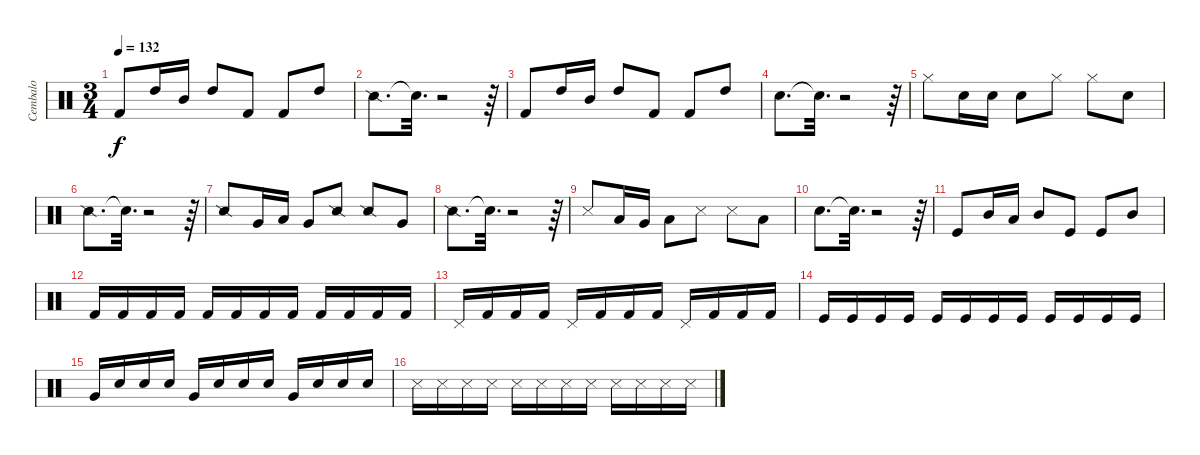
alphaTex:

\track ("Cembalo" "Cembalo") {instrument percussion}
\staff {score}
\articulation defaults
\ts (3 4)
\tempo 132
\clef neutral
\ks c "Kick (hit) 2".8{dy f} "High Tom (hit)".16 "Mid Tom (hit)".16 "High Tom (hit)".8 "Kick (hit) 2".8 "Kick (hit) 2".8 "High Tom (hit)".8
|
"Snare (side stick) 2".8{d} "Snare (hit)"{t}.32{d} r.2 r.64 |
"Kick (hit) 2".8 "High Tom (hit)".16 "Mid Tom (hit)".16 "High Tom (hit)".8 "Kick (hit) 2".8 "Kick (hit) 2".8 "High Tom (hit)".8 |
"Metronome (bell)".8{d} "Snare (hit)"{t}.32{d} r.2 r.64 |
"Hi-Hat (closed)".8 "Hand Clap (hit)".16 "Snare (hit) 2".16 "Hand Clap (hit)".8 "Hi-Hat (closed)".8 "Hi-Hat (closed)".8 "Hand Clap (hit)".8 |
"Snare (side stick) 2".8{d} "Snare (hit)"{t}.32{d} r.2 r.64 |
"Snare (side stick) 2".8 "Very Low Tom (hit)".16 "Low Floor Tom (hit)".16 "Very Low Tom (hit)".8 "Snare (side stick) 2".8 "Snare (side stick) 2".8 "Very Low Tom (hit)".8 |
"Snare (side stick) 2".8{d} "Snare (hit)"{t}.32{d} r.2 r.64 |
"Metronome (hit)".8 "Low Tom (hit)".16 "Very Low Tom (hit)".16 "Low Tom (hit)".8 "Metronome (hit)".8 "Metronome (hit)".8 "Low Tom (hit)".8 |
"Metronome (bell)".8{d} "Snare (hit)"{t}.32{d} r.2 r.64 |
"Kick (hit)".8 "Mid Tom (hit)".16 "Low Tom (hit)".16 "Mid Tom (hit)".8 "Kick (hit)".8 "Kick (hit)".8 "Mid Tom (hit)".8 |
"Kick (hit) 2".16 "Kick (hit) 2".16 "Kick (hit) 2".16 "Kick (hit) 2".16 "Kick (hit) 2".16 "Kick (hit) 2".16 "Kick (hit) 2".16 "Kick (hit) 2".16 "Kick (hit) 2".16 "Kick (hit) 2".16 "Kick (hit) 2".16 "Kick (hit) 2".16 |
"Pedal Hi-Hat (hit)".16 "Kick (hit) 2".16 "Kick (hit) 2".16 "Kick (hit) 2".16 "Pedal Hi-Hat (hit)".16 "Kick (hit) 2".16 "Kick (hit) 2".16 "Kick (hit) 2".16 "Pedal Hi-Hat (hit)".16 "Kick (hit) 2".16 "Kick (hit) 2".16 "Kick (hit) 2".16 |
"Kick (hit)".16 "Kick (hit)".16 "Kick (hit)".16 "Kick (hit)".16 "Kick (hit)".16 "Kick (hit)".16 "Kick (hit)".16 "Kick (hit)".16 "Kick (hit)".16 "Kick (hit)".16 "Kick (hit)".16 "Kick (hit)".16 |
"Very Low Tom (hit)".16 "Metronome (bell)".16 "Metronome (bell)".16 "Metronome (bell)".16 "Very Low Tom (hit)".16 "Metronome (bell)".16 "Metronome (bell)".16 "Metronome (bell)".16 "Very Low Tom (hit)".16 "Metronome (bell)".16 "Metronome (bell)".16 "Metronome (bell)".16 |
"Metronome (hit)".16 "Metronome (hit)".16 "Metronome (hit)".16 "Metronome (hit)".16 "Metronome (hit)".16 "Metronome (hit)".16 "Metronome (hit)".16 "Metronome (hit)".16 "Metronome (hit)".16 "Metronome (hit)".16 "Metronome (hit)".16 "Metronome (hit)".16
